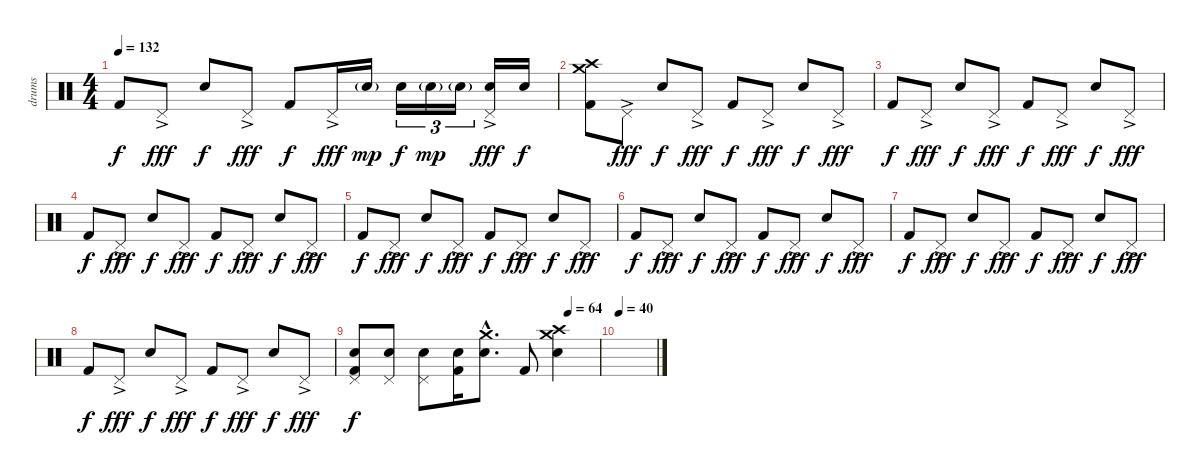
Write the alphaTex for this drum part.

\track ("drums" "drums") {instrument percussion}
\staff {score}
\articulation defaults
\ts (4 4)
\tempo 132
\clef neutral
\ks c "Kick (hit) 2".8{dy f} "Pedal Hi-Hat (hit)"{ac}.8{dy fff} "Snare (hit) 2".8{dy f} "Pedal Hi-Hat (hit)"{ac}.8{dy fff} "Kick (hit) 2".8{dy f} "Pedal Hi-Hat (hit)"{ac}.16{dy fff} "Snare (hit) 2"{g}.16{dy mp} "Snare (hit) 2".16{tu (3 2) dy f} "Snare (hit) 2"{g}.16{tu (3 2) dy mp} "Snare (hit) 2"{g}.16{tu (3 2)}
("Pedal Hi-Hat (hit)"{ac} "Snare (hit) 2").16{dy fff} "Snare (hit) 2".16{dy f} |
("Kick (hit) 2" "Crash medium (hit)" "Crash high (hit)").8 "Pedal Hi-Hat (hit)"{ac}.8{dy fff} "Snare (hit) 2".8{dy f} "Pedal Hi-Hat (hit)"{ac}.8{dy fff} "Kick (hit) 2".8{dy f} "Pedal Hi-Hat (hit)"{ac}.8{dy fff} "Snare (hit) 2".8{dy f} "Pedal Hi-Hat (hit)"{ac}.8{dy fff} |
"Kick (hit) 2".8{dy f} "Pedal Hi-Hat (hit)"{ac}.8{dy fff} "Snare (hit) 2".8{dy f} "Pedal Hi-Hat (hit)"{ac}.8{dy fff} "Kick (hit) 2".8{dy f} "Pedal Hi-Hat (hit)"{ac}.8{dy fff} "Snare (hit) 2".8{dy f} "Pedal Hi-Hat (hit)"{ac}.8{dy fff} |
"Kick (hit) 2".8{dy f} "Pedal Hi-Hat (hit)"{ac}.8{dy fff} "Snare (hit) 2".8{dy f} "Pedal Hi-Hat (hit)"{ac}.8{dy fff} "Kick (hit) 2".8{dy f} "Pedal Hi-Hat (hit)"{ac}.8{dy fff} "Snare (hit) 2".8{dy f} "Pedal Hi-Hat (hit)"{ac}.8{dy fff} |
"Kick (hit) 2".8{dy f} "Pedal Hi-Hat (hit)"{ac}.8{dy fff} "Snare (hit) 2".8{dy f} "Pedal Hi-Hat (hit)"{ac}.8{dy fff} "Kick (hit) 2".8{dy f} "Pedal Hi-Hat (hit)"{ac}.8{dy fff} "Snare (hit) 2".8{dy f} "Pedal Hi-Hat (hit)"{ac}.8{dy fff} |
"Kick (hit) 2".8{dy f} "Pedal Hi-Hat (hit)"{ac}.8{dy fff} "Snare (hit) 2".8{dy f} "Pedal Hi-Hat (hit)"{ac}.8{dy fff} "Kick (hit) 2".8{dy f} "Pedal Hi-Hat (hit)"{ac}.8{dy fff} "Snare (hit) 2".8{dy f} "Pedal Hi-Hat (hit)"{ac}.8{dy fff} |
"Kick (hit) 2".8{dy f} "Pedal Hi-Hat (hit)"{ac}.8{dy fff} "Snare (hit) 2".8{dy f} "Pedal Hi-Hat (hit)"{ac}.8{dy fff} "Kick (hit) 2".8{dy f} "Pedal Hi-Hat (hit)"{ac}.8{dy fff} "Snare (hit) 2".8{dy f} "Pedal Hi-Hat (hit)"{ac}.8{dy fff} |
"Kick (hit) 2".8{dy f} "Pedal Hi-Hat (hit)"{ac}.8{dy fff} "Snare (hit) 2".8{dy f} "Pedal Hi-Hat (hit)"{ac}.8{dy fff} "Kick (hit) 2".8{dy f} "Pedal Hi-Hat (hit)"{ac}.8{dy fff} "Snare (hit) 2".8{dy f} "Pedal Hi-Hat (hit)"{ac}.8{dy fff} |
\tempo (64 0.875)
("Pedal Hi-Hat (hit)" "Kick (hit) 2" "Snare (hit) 2").8{dy f} ("Pedal Hi-Hat (hit)" "Snare (hit) 2").8 ("Pedal Hi-Hat (hit)" "Snare (hit) 2").8 ("Kick (hit) 2" "Snare (hit) 2").16 ("Snare (hit) 2"{hac} "Crash medium (hit)"{hac}).8{d} "Kick (hit) 2".8 ("Snare (hit) 2" "Crash medium (hit)" "Crash high (hit)").4 |
\tempo 40
